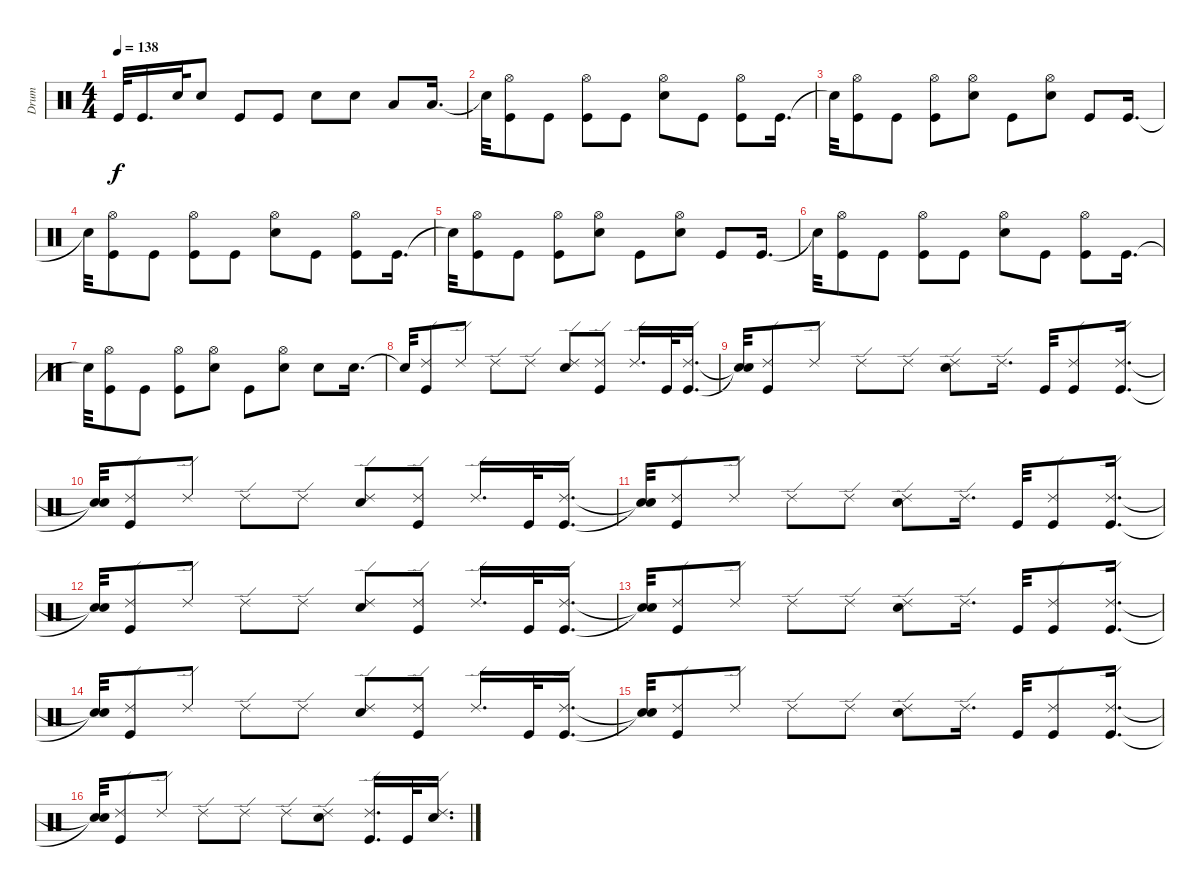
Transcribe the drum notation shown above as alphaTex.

\track ("Drum" "Drum") {instrument percussion}
\staff {score}
\articulation defaults
\ts (4 4)
\tempo 138
\clef neutral
\ks c "Kick (hit)".32{dy f} "Kick (hit)".16{d} "Electric Snare (hit)".32 "Electric Snare (hit)".8 "Kick (hit)".8 "Kick (hit)".8 "Electric Snare (hit)".8 "Electric Snare (hit)".8 "Low Tom (hit)".8 "Low Tom (hit)".16{d}
|
"Snare (hit)"{t}.32 ("Hi-Hat (open)" "Kick (hit)").8 "Kick (hit)".8 ("Hi-Hat (open)" "Kick (hit)").8 "Kick (hit)".8 ("Hi-Hat (open)" "Electric Snare (hit)").8 "Kick (hit)".8 ("Hi-Hat (open)" "Kick (hit)").8 "Kick (hit)".16{d} |
"Snare (hit)"{t}.32 ("Hi-Hat (open)" "Kick (hit)").8 "Kick (hit)".8 ("Hi-Hat (open)" "Kick (hit)").8 ("Hi-Hat (open)" "Electric Snare (hit)").8 "Kick (hit)".8 ("Hi-Hat (open)" "Electric Snare (hit)").8 "Kick (hit)".8 "Kick (hit)".16{d} |
"Snare (hit)"{t}.32 ("Hi-Hat (open)" "Kick (hit)").8 "Kick (hit)".8 ("Hi-Hat (open)" "Kick (hit)").8 "Kick (hit)".8 ("Hi-Hat (open)" "Electric Snare (hit)").8 "Kick (hit)".8 ("Hi-Hat (open)" "Kick (hit)").8 "Kick (hit)".16{d} |
"Snare (hit)"{t}.32 ("Hi-Hat (open)" "Kick (hit)").8 "Kick (hit)".8 ("Hi-Hat (open)" "Kick (hit)").8 ("Hi-Hat (open)" "Electric Snare (hit)").8 "Kick (hit)".8 ("Hi-Hat (open)" "Electric Snare (hit)").8 "Kick (hit)".8 "Kick (hit)".16{d} |
"Snare (hit)"{t}.32 ("Hi-Hat (open)" "Kick (hit)").8 "Kick (hit)".8 ("Hi-Hat (open)" "Kick (hit)").8 "Kick (hit)".8 ("Hi-Hat (open)" "Electric Snare (hit)").8 "Kick (hit)".8 ("Hi-Hat (open)" "Kick (hit)").8 "Kick (hit)".16{d} |
"Snare (hit)"{t}.32 ("Hi-Hat (open)" "Kick (hit)").8 "Kick (hit)".8 ("Hi-Hat (open)" "Kick (hit)").8 ("Hi-Hat (open)" "Electric Snare (hit)").8 "Kick (hit)".8 ("Hi-Hat (open)" "Electric Snare (hit)").8 "Electric Snare (hit)".8 "Electric Snare (hit)".16{d} |
"Snare (hit)"{t}.32 ("Ride (edge) 2" "Kick (hit)").8 "Ride (edge) 2".8 "Ride (edge) 2".8 "Ride (edge) 2".8 ("Ride (edge) 2" "Snare (hit) 2").8 ("Ride (edge) 2" "Kick (hit)").8 "Ride (edge) 2".16{d} "Kick (hit)".32 ("Ride (edge) 2" "Kick (hit)").16{d} |
("Snare (hit)"{t} "Snare (hit)"{t}).32 ("Ride (edge) 2" "Kick (hit)").8 "Ride (edge) 2".8 "Ride (edge) 2".8 "Ride (edge) 2".8 ("Ride (edge) 2" "Electric Snare (hit)").8 "Ride (edge) 2".16{d} "Kick (hit)".32 ("Ride (edge) 2" "Kick (hit)").8 ("Ride (edge) 2" "Kick (hit)").16{d} |
("Snare (hit)"{t} "Snare (hit)"{t}).32 ("Ride (edge) 2" "Kick (hit)").8 "Ride (edge) 2".8 "Ride (edge) 2".8 "Ride (edge) 2".8 ("Ride (edge) 2" "Snare (hit) 2").8 ("Ride (edge) 2" "Kick (hit)").8 "Ride (edge) 2".16{d} "Kick (hit)".32 ("Ride (edge) 2" "Kick (hit)").16{d} |
("Snare (hit)"{t} "Snare (hit)"{t}).32 ("Ride (edge) 2" "Kick (hit)").8 "Ride (edge) 2".8 "Ride (edge) 2".8 "Ride (edge) 2".8 ("Ride (edge) 2" "Electric Snare (hit)").8 "Ride (edge) 2".16{d} "Kick (hit)".32 ("Ride (edge) 2" "Kick (hit)").8 ("Ride (edge) 2" "Kick (hit)").16{d} |
("Snare (hit)"{t} "Snare (hit)"{t}).32 ("Ride (edge) 2" "Kick (hit)").8 "Ride (edge) 2".8 "Ride (edge) 2".8 "Ride (edge) 2".8 ("Ride (edge) 2" "Snare (hit) 2").8 ("Ride (edge) 2" "Kick (hit)").8 "Ride (edge) 2".16{d} "Kick (hit)".32 ("Ride (edge) 2" "Kick (hit)").16{d} |
("Snare (hit)"{t} "Snare (hit)"{t}).32 ("Ride (edge) 2" "Kick (hit)").8 "Ride (edge) 2".8 "Ride (edge) 2".8 "Ride (edge) 2".8 ("Ride (edge) 2" "Electric Snare (hit)").8 "Ride (edge) 2".16{d} "Kick (hit)".32 ("Ride (edge) 2" "Kick (hit)").8 ("Ride (edge) 2" "Kick (hit)").16{d} |
("Snare (hit)"{t} "Snare (hit)"{t}).32 ("Ride (edge) 2" "Kick (hit)").8 "Ride (edge) 2".8 "Ride (edge) 2".8 "Ride (edge) 2".8 ("Ride (edge) 2" "Snare (hit) 2").8 ("Ride (edge) 2" "Kick (hit)").8 "Ride (edge) 2".16{d} "Kick (hit)".32 ("Ride (edge) 2" "Kick (hit)").16{d} |
("Snare (hit)"{t} "Snare (hit)"{t}).32 ("Ride (edge) 2" "Kick (hit)").8 "Ride (edge) 2".8 "Ride (edge) 2".8 "Ride (edge) 2".8 ("Ride (edge) 2" "Electric Snare (hit)").8 "Ride (edge) 2".16{d} "Kick (hit)".32 ("Ride (edge) 2" "Kick (hit)").8 ("Ride (edge) 2" "Kick (hit)").16{d} |
("Snare (hit)"{t} "Snare (hit)"{t}).32 ("Ride (edge) 2" "Kick (hit)").8 "Ride (edge) 2".8 "Ride (edge) 2".8 "Ride (edge) 2".8 "Ride (edge) 2".8 ("Ride (edge) 2" "Electric Snare (hit)").8 ("Ride (edge) 2" "Kick (hit)").16{d} "Kick (hit)".32 ("Ride (edge) 2" "Electric Snare (hit)").16{d}
